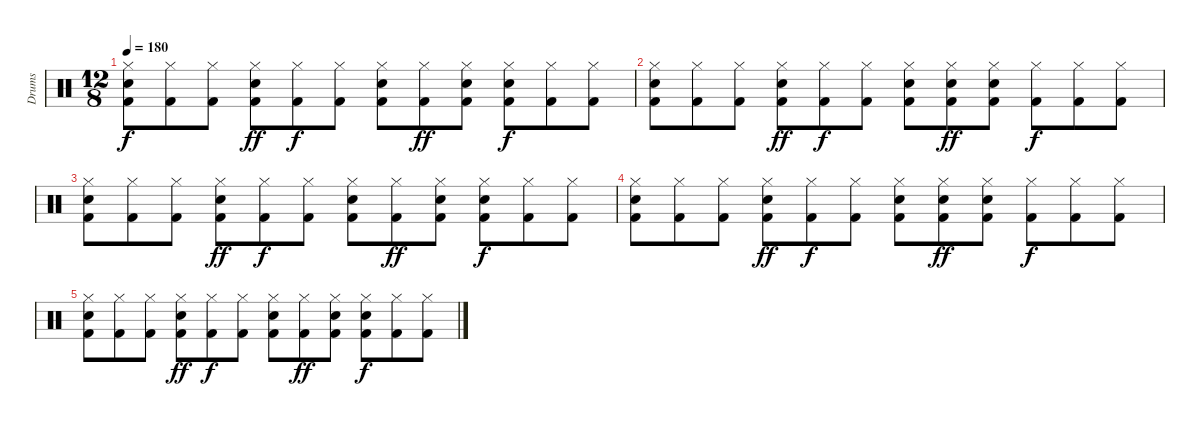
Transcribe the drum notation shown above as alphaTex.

\track ("Drums" "Drums") {instrument percussion}
\staff {score}
\articulation defaults
\ts (12 8)
\tempo 180
\clef neutral
\ks c
("Hi-Hat (closed)" "Electric Snare (hit)" "Kick (hit) 2").8{dy f} ("Hi-Hat (closed)" "Kick (hit) 2").8 ("Hi-Hat (closed)" "Kick (hit) 2").8 ("Hi-Hat (closed)" "Electric Snare (hit)" "Kick (hit) 2").8{dy ff} ("Hi-Hat (closed)" "Kick (hit) 2").8{dy f} ("Hi-Hat (closed)" "Kick (hit) 2").8 ("Hi-Hat (closed)" "Electric Snare (hit)" "Kick (hit) 2").8 ("Hi-Hat (closed)" "Kick (hit) 2").8{dy ff} ("Hi-Hat (closed)" "Electric Snare (hit)" "Kick (hit) 2").8 ("Hi-Hat (closed)" "Electric Snare (hit)" "Kick (hit) 2").8{dy f} ("Hi-Hat (closed)" "Kick (hit) 2").8 ("Hi-Hat (closed)" "Kick (hit) 2").8 |
("Hi-Hat (closed)" "Electric Snare (hit)" "Kick (hit) 2").8 ("Hi-Hat (closed)" "Kick (hit) 2").8 ("Hi-Hat (closed)" "Kick (hit) 2").8 ("Hi-Hat (closed)" "Electric Snare (hit)" "Kick (hit) 2").8{dy ff} ("Hi-Hat (closed)" "Kick (hit) 2").8{dy f} ("Hi-Hat (closed)" "Kick (hit) 2").8 ("Hi-Hat (closed)" "Electric Snare (hit)" "Kick (hit) 2").8 ("Hi-Hat (closed)" "Electric Snare (hit)" "Kick (hit) 2").8{dy ff} ("Hi-Hat (closed)" "Electric Snare (hit)" "Kick (hit) 2").8 ("Hi-Hat (closed)" "Kick (hit) 2").8{dy f} ("Hi-Hat (closed)" "Kick (hit) 2").8 ("Hi-Hat (closed)" "Kick (hit) 2").8 |
("Hi-Hat (closed)" "Electric Snare (hit)" "Kick (hit) 2").8 ("Hi-Hat (closed)" "Kick (hit) 2").8 ("Hi-Hat (closed)" "Kick (hit) 2").8 ("Hi-Hat (closed)" "Electric Snare (hit)" "Kick (hit) 2").8{dy ff} ("Hi-Hat (closed)" "Kick (hit) 2").8{dy f} ("Hi-Hat (closed)" "Kick (hit) 2").8 ("Hi-Hat (closed)" "Electric Snare (hit)" "Kick (hit) 2").8 ("Hi-Hat (closed)" "Kick (hit) 2").8{dy ff} ("Hi-Hat (closed)" "Electric Snare (hit)" "Kick (hit) 2").8 ("Hi-Hat (closed)" "Electric Snare (hit)" "Kick (hit) 2").8{dy f} ("Hi-Hat (closed)" "Kick (hit) 2").8 ("Hi-Hat (closed)" "Kick (hit) 2").8 |
("Hi-Hat (closed)" "Electric Snare (hit)" "Kick (hit) 2").8 ("Hi-Hat (closed)" "Kick (hit) 2").8 ("Hi-Hat (closed)" "Kick (hit) 2").8 ("Hi-Hat (closed)" "Electric Snare (hit)" "Kick (hit) 2").8{dy ff} ("Hi-Hat (closed)" "Kick (hit) 2").8{dy f} ("Hi-Hat (closed)" "Kick (hit) 2").8 ("Hi-Hat (closed)" "Electric Snare (hit)" "Kick (hit) 2").8 ("Hi-Hat (closed)" "Electric Snare (hit)" "Kick (hit) 2").8{dy ff} ("Hi-Hat (closed)" "Electric Snare (hit)" "Kick (hit) 2").8 ("Hi-Hat (closed)" "Kick (hit) 2").8{dy f} ("Hi-Hat (closed)" "Kick (hit) 2").8 ("Hi-Hat (closed)" "Kick (hit) 2").8 |
("Hi-Hat (closed)" "Electric Snare (hit)" "Kick (hit) 2").8 ("Hi-Hat (closed)" "Kick (hit) 2").8 ("Hi-Hat (closed)" "Kick (hit) 2").8 ("Hi-Hat (closed)" "Electric Snare (hit)" "Kick (hit) 2").8{dy ff} ("Hi-Hat (closed)" "Kick (hit) 2").8{dy f} ("Hi-Hat (closed)" "Kick (hit) 2").8 ("Hi-Hat (closed)" "Electric Snare (hit)" "Kick (hit) 2").8 ("Hi-Hat (closed)" "Kick (hit) 2").8{dy ff} ("Hi-Hat (closed)" "Electric Snare (hit)" "Kick (hit) 2").8 ("Hi-Hat (closed)" "Electric Snare (hit)" "Kick (hit) 2").8{dy f} ("Hi-Hat (closed)" "Kick (hit) 2").8 ("Hi-Hat (closed)" "Kick (hit) 2").8
